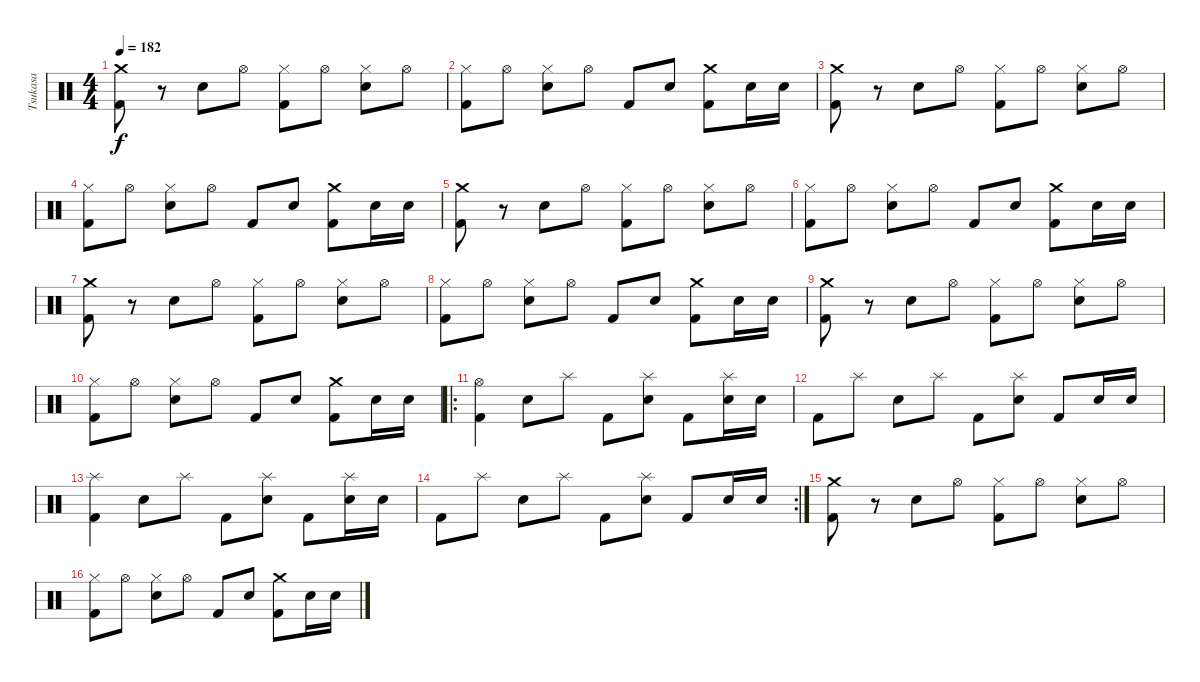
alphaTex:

\track ("Tsukasa" "Tsukasa") {instrument percussion}
\staff {score}
\articulation defaults
\ts (4 4)
\tempo 182
\clef neutral
\ks c
("Kick (hit) 2" "Crash medium (hit)").8{dy f} r.8 "Electric Snare (hit)".8 "Hi-Hat (open)".8 ("Kick (hit) 2" "Hi-Hat (closed)").8 "Hi-Hat (open)".8 ("Electric Snare (hit)" "Hi-Hat (closed)").8 "Hi-Hat (open)".8 |
("Kick (hit) 2" "Hi-Hat (closed)").8 "Hi-Hat (open)".8 ("Electric Snare (hit)" "Hi-Hat (closed)").8 "Hi-Hat (open)".8 "Kick (hit) 2".8 "Electric Snare (hit)".8 ("Kick (hit) 2" "Crash medium (hit)").8 "Electric Snare (hit)".16 "Electric Snare (hit)".16 |
("Kick (hit) 2" "Crash medium (hit)").8 r.8 "Electric Snare (hit)".8 "Hi-Hat (open)".8 ("Kick (hit) 2" "Hi-Hat (closed)").8 "Hi-Hat (open)".8 ("Electric Snare (hit)" "Hi-Hat (closed)").8 "Hi-Hat (open)".8 |
("Kick (hit) 2" "Hi-Hat (closed)").8 "Hi-Hat (open)".8 ("Electric Snare (hit)" "Hi-Hat (closed)").8 "Hi-Hat (open)".8 "Kick (hit) 2".8 "Electric Snare (hit)".8 ("Kick (hit) 2" "Crash medium (hit)").8 "Electric Snare (hit)".16 "Electric Snare (hit)".16 |
("Kick (hit) 2" "Crash medium (hit)").8 r.8 "Electric Snare (hit)".8 "Hi-Hat (open)".8 ("Kick (hit) 2" "Hi-Hat (closed)").8 "Hi-Hat (open)".8 ("Electric Snare (hit)" "Hi-Hat (closed)").8 "Hi-Hat (open)".8 |
("Kick (hit) 2" "Hi-Hat (closed)").8 "Hi-Hat (open)".8 ("Electric Snare (hit)" "Hi-Hat (closed)").8 "Hi-Hat (open)".8 "Kick (hit) 2".8 "Electric Snare (hit)".8 ("Kick (hit) 2" "Crash medium (hit)").8 "Electric Snare (hit)".16 "Electric Snare (hit)".16 |
("Kick (hit) 2" "Crash medium (hit)").8 r.8 "Electric Snare (hit)".8 "Hi-Hat (open)".8 ("Kick (hit) 2" "Hi-Hat (closed)").8 "Hi-Hat (open)".8 ("Electric Snare (hit)" "Hi-Hat (closed)").8 "Hi-Hat (open)".8 |
("Kick (hit) 2" "Hi-Hat (closed)").8 "Hi-Hat (open)".8 ("Electric Snare (hit)" "Hi-Hat (closed)").8 "Hi-Hat (open)".8 "Kick (hit) 2".8 "Electric Snare (hit)".8 ("Kick (hit) 2" "Crash medium (hit)").8 "Electric Snare (hit)".16 "Electric Snare (hit)".16 |
("Kick (hit) 2" "Crash medium (hit)").8 r.8 "Electric Snare (hit)".8 "Hi-Hat (open)".8 ("Kick (hit) 2" "Hi-Hat (closed)").8 "Hi-Hat (open)".8 ("Electric Snare (hit)" "Hi-Hat (closed)").8 "Hi-Hat (open)".8 |
("Kick (hit) 2" "Hi-Hat (closed)").8 "Hi-Hat (open)".8 ("Electric Snare (hit)" "Hi-Hat (closed)").8 "Hi-Hat (open)".8 "Kick (hit) 2".8 "Electric Snare (hit)".8 ("Kick (hit) 2" "Crash medium (hit)").8 "Electric Snare (hit)".16 "Electric Snare (hit)".16 |
\ro
("Kick (hit) 2" "Hi-Hat (open)").4 "Electric Snare (hit)".8 "Splash (hit)".8 "Kick (hit) 2".8 ("Electric Snare (hit)" "Splash (hit)").8 "Kick (hit) 2".8 ("Electric Snare (hit)" "Splash (hit)").16 "Electric Snare (hit)".16 |
"Kick (hit) 2".8 "Splash (hit)".8 "Electric Snare (hit)".8 "Splash (hit)".8 "Kick (hit) 2".8 ("Electric Snare (hit)" "Splash (hit)").8 "Kick (hit) 2".8 "Electric Snare (hit)".16 "Electric Snare (hit)".16 |
("Kick (hit) 2" "Splash (hit)").4 "Electric Snare (hit)".8 "Splash (hit)".8 "Kick (hit) 2".8 ("Electric Snare (hit)" "Splash (hit)").8 "Kick (hit) 2".8 ("Electric Snare (hit)" "Splash (hit)").16 "Electric Snare (hit)".16 |
\rc 2 "Kick (hit) 2".8 "Splash (hit)".8 "Electric Snare (hit)".8 "Splash (hit)".8 "Kick (hit) 2".8
("Electric Snare (hit)" "Splash (hit)").8 "Kick (hit) 2".8 "Electric Snare (hit)".16 "Electric Snare (hit)".16 |
("Kick (hit) 2" "Crash medium (hit)").8 r.8 "Electric Snare (hit)".8 "Hi-Hat (open)".8 ("Kick (hit) 2" "Hi-Hat (closed)").8 "Hi-Hat (open)".8 ("Electric Snare (hit)" "Hi-Hat (closed)").8 "Hi-Hat (open)".8 |
("Kick (hit) 2" "Hi-Hat (closed)").8 "Hi-Hat (open)".8 ("Electric Snare (hit)" "Hi-Hat (closed)").8 "Hi-Hat (open)".8 "Kick (hit) 2".8 "Electric Snare (hit)".8 ("Kick (hit) 2" "Crash medium (hit)").8 "Electric Snare (hit)".16 "Electric Snare (hit)".16
